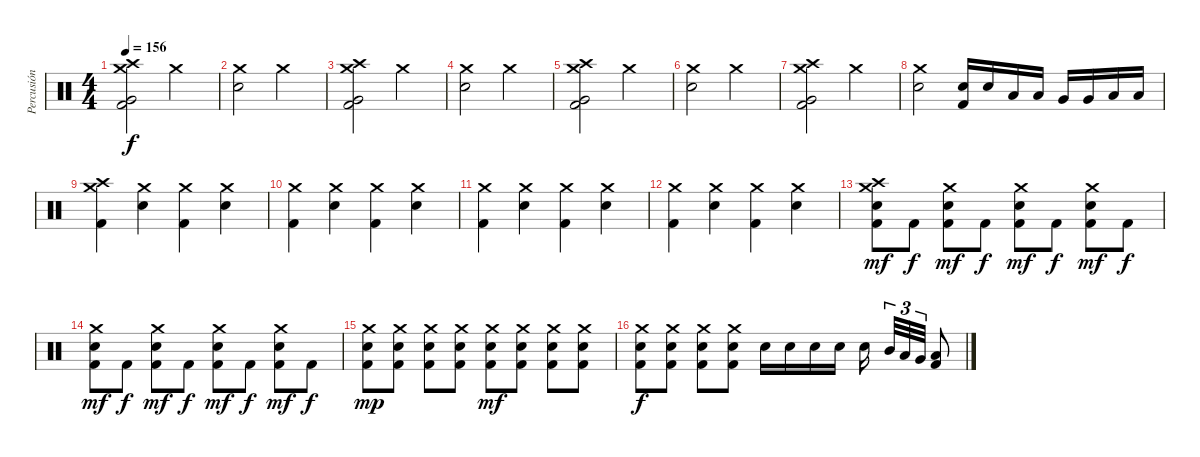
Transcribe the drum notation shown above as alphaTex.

\track ("Percusión" "Percusión") {instrument percussion}
\staff {score}
\articulation defaults
\ts (4 4)
\tempo 156
\clef neutral
\ks c
("Crash high (hit)" "Crash medium (hit)" "Kick (hit) 2" "Very Low Tom (hit)").2{dy f} "Crash medium (hit)".2 |
("Crash medium (hit)" "Electric Snare (hit)").2 "Crash medium (hit)".2 |
("Crash high (hit)" "Crash medium (hit)" "Kick (hit) 2" "Very Low Tom (hit)").2 "Crash medium (hit)".2 |
("Crash medium (hit)" "Electric Snare (hit)").2 "Crash medium (hit)".2 |
("Crash high (hit)" "Crash medium (hit)" "Kick (hit) 2" "Very Low Tom (hit)").2 "Crash medium (hit)".2 |
("Crash medium (hit)" "Electric Snare (hit)").2 "Crash medium (hit)".2 |
("Crash high (hit)" "Crash medium (hit)" "Kick (hit) 2" "Very Low Tom (hit)").2 "Crash medium (hit)".2 |
("Crash medium (hit)" "Electric Snare (hit)").2 ("Electric Snare (hit)" "Kick (hit) 2").16 "Electric Snare (hit)".16 "Low Tom (hit)".16 "Low Tom (hit)".16 "Very Low Tom (hit)".16 "Very Low Tom (hit)".16 "Low Floor Tom (hit)".16 "Low Floor Tom (hit)".16 |
("Crash high (hit)" "Crash medium (hit)" "Kick (hit) 2").4 ("Crash medium (hit)" "Electric Snare (hit)").4 ("Crash medium (hit)" "Kick (hit) 2").4 ("Crash medium (hit)" "Electric Snare (hit)").4 |
("Crash medium (hit)" "Kick (hit) 2").4 ("Crash medium (hit)" "Electric Snare (hit)").4 ("Crash medium (hit)" "Kick (hit) 2").4 ("Crash medium (hit)" "Electric Snare (hit)").4 |
("Crash medium (hit)" "Kick (hit) 2").4 ("Crash medium (hit)" "Electric Snare (hit)").4 ("Crash medium (hit)" "Kick (hit) 2").4 ("Crash medium (hit)" "Electric Snare (hit)").4 |
("Crash medium (hit)" "Kick (hit) 2").4 ("Crash medium (hit)" "Electric Snare (hit)").4 ("Crash medium (hit)" "Kick (hit) 2").4 ("Crash medium (hit)" "Electric Snare (hit)").4 |
("Crash high (hit)" "Crash medium (hit)" "Electric Snare (hit)" "Kick (hit) 2").8{dy mf} "Kick (hit) 2".8{dy f} ("Crash medium (hit)" "Electric Snare (hit)" "Kick (hit) 2").8{dy mf} "Kick (hit) 2".8{dy f} ("Crash medium (hit)" "Electric Snare (hit)" "Kick (hit) 2").8{dy mf} "Kick (hit) 2".8{dy f} ("Crash medium (hit)" "Electric Snare (hit)" "Kick (hit) 2").8{dy mf} "Kick (hit) 2".8{dy f} |
("Crash medium (hit)" "Electric Snare (hit)" "Kick (hit) 2").8{dy mf} "Kick (hit) 2".8{dy f} ("Crash medium (hit)" "Electric Snare (hit)" "Kick (hit) 2").8{dy mf} "Kick (hit) 2".8{dy f} ("Crash medium (hit)" "Electric Snare (hit)" "Kick (hit) 2").8{dy mf} "Kick (hit) 2".8{dy f} ("Crash medium (hit)" "Electric Snare (hit)" "Kick (hit) 2").8{dy mf} "Kick (hit) 2".8{dy f} |
("Crash medium (hit)" "Electric Snare (hit)" "Kick (hit) 2").8{dy mp} ("Crash medium (hit)" "Electric Snare (hit)" "Kick (hit) 2").8 ("Crash medium (hit)" "Electric Snare (hit)" "Kick (hit) 2").8 ("Crash medium (hit)" "Electric Snare (hit)" "Kick (hit) 2").8 ("Crash medium (hit)" "Electric Snare (hit)" "Kick (hit) 2").8{dy mf} ("Crash medium (hit)" "Electric Snare (hit)" "Kick (hit) 2").8 ("Crash medium (hit)" "Electric Snare (hit)" "Kick (hit) 2").8 ("Crash medium (hit)" "Electric Snare (hit)" "Kick (hit) 2").8 |
("Crash medium (hit)" "Electric Snare (hit)" "Kick (hit) 2").8{dy f} ("Crash medium (hit)" "Electric Snare (hit)" "Kick (hit) 2").8 ("Crash medium (hit)" "Electric Snare (hit)" "Kick (hit) 2").8 ("Crash medium (hit)" "Electric Snare (hit)" "Kick (hit) 2").8 "Electric Snare (hit)".16 "Electric Snare (hit)".16 "Electric Snare (hit)".16 "Electric Snare (hit)".16 "Electric Snare (hit)".16{beam splitsecondary} "Mid Tom (hit)".32{tu (3 2)} "Low Tom (hit)".32{tu (3 2)} "Very Low Tom (hit)".32{tu (3 2)} ("Low Floor Tom (hit)" "Kick (hit) 2").8
